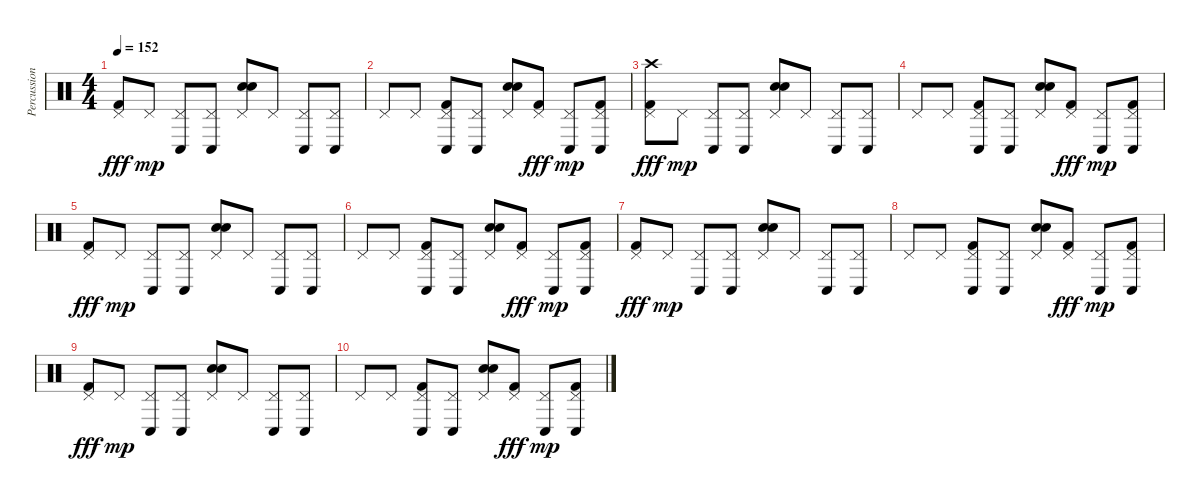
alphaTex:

\track ("Percussion" "Percussion") {instrument percussion}
\staff {score}
\articulation defaults
\ts (4 4)
\tempo 152
\clef neutral
\ks c
("Pedal Hi-Hat (hit)" "Kick (hit) 2").8{dy fff} "Pedal Hi-Hat (hit)".8{dy mp} ("Pedal Hi-Hat (hit)" "Conga low (hit)").8 ("Pedal Hi-Hat (hit)" "Conga low (hit)").8 ("Pedal Hi-Hat (hit)" "Electric Snare (hit)" "Hand Clap (hit)").8 "Pedal Hi-Hat (hit)".8 ("Pedal Hi-Hat (hit)" "Conga low (hit)").8 ("Pedal Hi-Hat (hit)" "Conga low (hit)").8 |
"Pedal Hi-Hat (hit)".8 "Pedal Hi-Hat (hit)".8 ("Pedal Hi-Hat (hit)" "Kick (hit) 2" "Conga low (hit)").8 ("Pedal Hi-Hat (hit)" "Conga low (hit)").8 ("Pedal Hi-Hat (hit)" "Electric Snare (hit)" "Hand Clap (hit)").8 ("Pedal Hi-Hat (hit)" "Kick (hit) 2").8{dy fff} ("Pedal Hi-Hat (hit)" "Conga low (hit)").8{dy mp} ("Pedal Hi-Hat (hit)" "Kick (hit) 2" "Conga low (hit)").8 |
("Pedal Hi-Hat (hit)" "Kick (hit) 2" "Crash high (hit)").8{dy fff} "Pedal Hi-Hat (hit)".8{dy mp} ("Pedal Hi-Hat (hit)" "Conga low (hit)").8 ("Pedal Hi-Hat (hit)" "Conga low (hit)").8 ("Pedal Hi-Hat (hit)" "Electric Snare (hit)" "Hand Clap (hit)").8 "Pedal Hi-Hat (hit)".8 ("Pedal Hi-Hat (hit)" "Conga low (hit)").8 ("Pedal Hi-Hat (hit)" "Conga low (hit)").8 |
"Pedal Hi-Hat (hit)".8 "Pedal Hi-Hat (hit)".8 ("Pedal Hi-Hat (hit)" "Kick (hit) 2" "Conga low (hit)").8 ("Pedal Hi-Hat (hit)" "Conga low (hit)").8 ("Pedal Hi-Hat (hit)" "Electric Snare (hit)" "Hand Clap (hit)").8 ("Pedal Hi-Hat (hit)" "Kick (hit) 2").8{dy fff} ("Pedal Hi-Hat (hit)" "Conga low (hit)").8{dy mp} ("Pedal Hi-Hat (hit)" "Kick (hit) 2" "Conga low (hit)").8 |
("Pedal Hi-Hat (hit)" "Kick (hit) 2").8{dy fff} "Pedal Hi-Hat (hit)".8{dy mp} ("Pedal Hi-Hat (hit)" "Conga low (hit)").8 ("Pedal Hi-Hat (hit)" "Conga low (hit)").8 ("Pedal Hi-Hat (hit)" "Electric Snare (hit)" "Hand Clap (hit)").8 "Pedal Hi-Hat (hit)".8 ("Pedal Hi-Hat (hit)" "Conga low (hit)").8 ("Pedal Hi-Hat (hit)" "Conga low (hit)").8 |
"Pedal Hi-Hat (hit)".8 "Pedal Hi-Hat (hit)".8 ("Pedal Hi-Hat (hit)" "Kick (hit) 2" "Conga low (hit)").8 ("Pedal Hi-Hat (hit)" "Conga low (hit)").8 ("Pedal Hi-Hat (hit)" "Electric Snare (hit)" "Hand Clap (hit)").8 ("Pedal Hi-Hat (hit)" "Kick (hit) 2").8{dy fff} ("Pedal Hi-Hat (hit)" "Conga low (hit)").8{dy mp} ("Pedal Hi-Hat (hit)" "Kick (hit) 2" "Conga low (hit)").8 |
("Pedal Hi-Hat (hit)" "Kick (hit) 2").8{dy fff} "Pedal Hi-Hat (hit)".8{dy mp} ("Pedal Hi-Hat (hit)" "Conga low (hit)").8 ("Pedal Hi-Hat (hit)" "Conga low (hit)").8 ("Pedal Hi-Hat (hit)" "Electric Snare (hit)" "Hand Clap (hit)").8 "Pedal Hi-Hat (hit)".8 ("Pedal Hi-Hat (hit)" "Conga low (hit)").8 ("Pedal Hi-Hat (hit)" "Conga low (hit)").8 |
"Pedal Hi-Hat (hit)".8 "Pedal Hi-Hat (hit)".8 ("Pedal Hi-Hat (hit)" "Kick (hit) 2" "Conga low (hit)").8 ("Pedal Hi-Hat (hit)" "Conga low (hit)").8 ("Pedal Hi-Hat (hit)" "Electric Snare (hit)" "Hand Clap (hit)").8 ("Pedal Hi-Hat (hit)" "Kick (hit) 2").8{dy fff} ("Pedal Hi-Hat (hit)" "Conga low (hit)").8{dy mp} ("Pedal Hi-Hat (hit)" "Kick (hit) 2" "Conga low (hit)").8 |
("Pedal Hi-Hat (hit)" "Kick (hit) 2").8{dy fff} "Pedal Hi-Hat (hit)".8{dy mp} ("Pedal Hi-Hat (hit)" "Conga low (hit)").8 ("Pedal Hi-Hat (hit)" "Conga low (hit)").8 ("Pedal Hi-Hat (hit)" "Electric Snare (hit)" "Hand Clap (hit)").8 "Pedal Hi-Hat (hit)".8 ("Pedal Hi-Hat (hit)" "Conga low (hit)").8 ("Pedal Hi-Hat (hit)" "Conga low (hit)").8 |
"Pedal Hi-Hat (hit)".8 "Pedal Hi-Hat (hit)".8 ("Pedal Hi-Hat (hit)" "Kick (hit) 2" "Conga low (hit)").8 ("Pedal Hi-Hat (hit)" "Conga low (hit)").8 ("Pedal Hi-Hat (hit)" "Electric Snare (hit)" "Hand Clap (hit)").8 ("Pedal Hi-Hat (hit)" "Kick (hit) 2").8{dy fff} ("Pedal Hi-Hat (hit)" "Conga low (hit)").8{dy mp} ("Pedal Hi-Hat (hit)" "Kick (hit) 2" "Conga low (hit)").8
